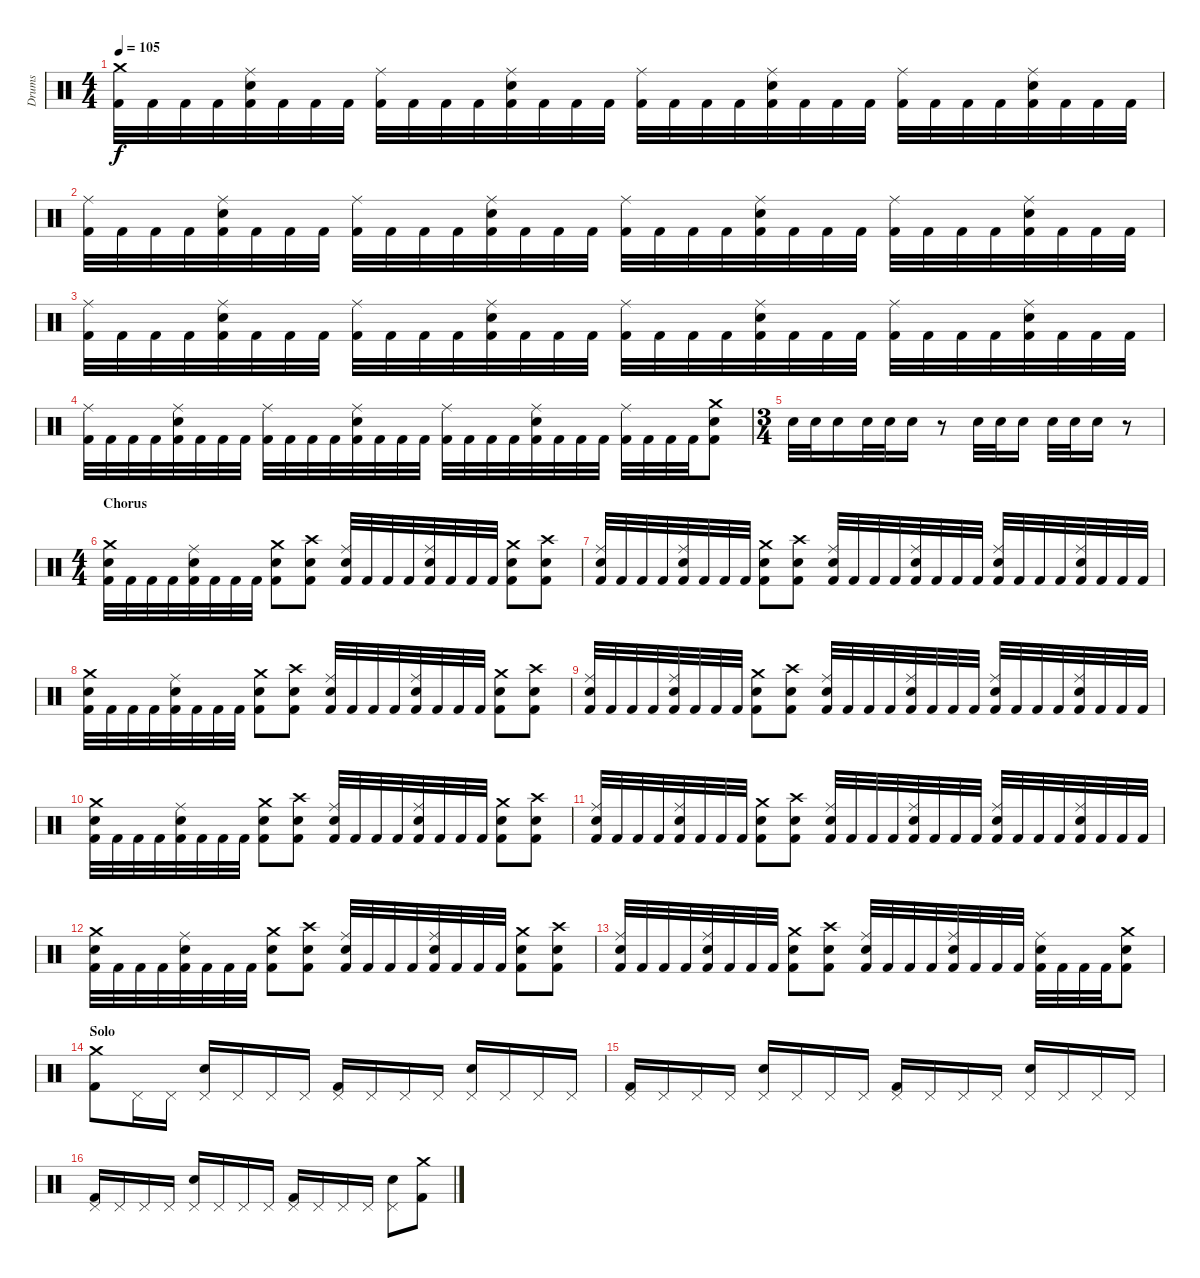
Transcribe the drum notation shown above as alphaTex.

\track ("Drums" "Drums") {instrument percussion}
\staff {score}
\articulation defaults
\ts (4 4)
\section ("" "")
\tempo 105
\clef neutral
\ks c
("Crash medium (hit)" "Kick (hit) 2").32{dy f} "Kick (hit) 2".32 "Kick (hit) 2".32 "Kick (hit) 2".32 ("Ride (middle)" "Electric Snare (hit)" "Kick (hit) 2").32 "Kick (hit) 2".32 "Kick (hit) 2".32 "Kick (hit) 2".32 ("Ride (middle)" "Kick (hit) 2").32 "Kick (hit) 2".32 "Kick (hit) 2".32 "Kick (hit) 2".32 ("Ride (middle)" "Electric Snare (hit)" "Kick (hit) 2").32 "Kick (hit) 2".32 "Kick (hit) 2".32 "Kick (hit) 2".32 ("Ride (middle)" "Kick (hit) 2").32 "Kick (hit) 2".32 "Kick (hit) 2".32 "Kick (hit) 2".32 ("Ride (middle)" "Electric Snare (hit)" "Kick (hit) 2").32 "Kick (hit) 2".32 "Kick (hit) 2".32 "Kick (hit) 2".32 ("Ride (middle)" "Kick (hit) 2").32 "Kick (hit) 2".32 "Kick (hit) 2".32 "Kick (hit) 2".32 ("Ride (middle)" "Electric Snare (hit)" "Kick (hit) 2").32 "Kick (hit) 2".32 "Kick (hit) 2".32 "Kick (hit) 2".32 |
("Ride (middle)" "Kick (hit) 2").32 "Kick (hit) 2".32 "Kick (hit) 2".32 "Kick (hit) 2".32 ("Ride (middle)" "Electric Snare (hit)" "Kick (hit) 2").32 "Kick (hit) 2".32 "Kick (hit) 2".32 "Kick (hit) 2".32 ("Ride (middle)" "Kick (hit) 2").32 "Kick (hit) 2".32 "Kick (hit) 2".32 "Kick (hit) 2".32 ("Ride (middle)" "Electric Snare (hit)" "Kick (hit) 2").32 "Kick (hit) 2".32 "Kick (hit) 2".32 "Kick (hit) 2".32 ("Ride (middle)" "Kick (hit) 2").32 "Kick (hit) 2".32 "Kick (hit) 2".32 "Kick (hit) 2".32 ("Ride (middle)" "Electric Snare (hit)" "Kick (hit) 2").32 "Kick (hit) 2".32 "Kick (hit) 2".32 "Kick (hit) 2".32 ("Ride (middle)" "Kick (hit) 2").32 "Kick (hit) 2".32 "Kick (hit) 2".32 "Kick (hit) 2".32 ("Ride (middle)" "Electric Snare (hit)" "Kick (hit) 2").32 "Kick (hit) 2".32 "Kick (hit) 2".32 "Kick (hit) 2".32 |
("Ride (middle)" "Kick (hit) 2").32 "Kick (hit) 2".32 "Kick (hit) 2".32 "Kick (hit) 2".32 ("Ride (middle)" "Electric Snare (hit)" "Kick (hit) 2").32 "Kick (hit) 2".32 "Kick (hit) 2".32 "Kick (hit) 2".32 ("Ride (middle)" "Kick (hit) 2").32 "Kick (hit) 2".32 "Kick (hit) 2".32 "Kick (hit) 2".32 ("Ride (middle)" "Electric Snare (hit)" "Kick (hit) 2").32 "Kick (hit) 2".32 "Kick (hit) 2".32 "Kick (hit) 2".32 ("Ride (middle)" "Kick (hit) 2").32 "Kick (hit) 2".32 "Kick (hit) 2".32 "Kick (hit) 2".32 ("Ride (middle)" "Electric Snare (hit)" "Kick (hit) 2").32 "Kick (hit) 2".32 "Kick (hit) 2".32 "Kick (hit) 2".32 ("Ride (middle)" "Kick (hit) 2").32 "Kick (hit) 2".32 "Kick (hit) 2".32 "Kick (hit) 2".32 ("Ride (middle)" "Electric Snare (hit)" "Kick (hit) 2").32 "Kick (hit) 2".32 "Kick (hit) 2".32 "Kick (hit) 2".32 |
("Ride (middle)" "Kick (hit) 2").32 "Kick (hit) 2".32 "Kick (hit) 2".32 "Kick (hit) 2".32 ("Ride (middle)" "Electric Snare (hit)" "Kick (hit) 2").32 "Kick (hit) 2".32 "Kick (hit) 2".32 "Kick (hit) 2".32 ("Ride (middle)" "Kick (hit) 2").32 "Kick (hit) 2".32 "Kick (hit) 2".32 "Kick (hit) 2".32 ("Ride (middle)" "Electric Snare (hit)" "Kick (hit) 2").32 "Kick (hit) 2".32 "Kick (hit) 2".32 "Kick (hit) 2".32 ("Ride (middle)" "Kick (hit) 2").32 "Kick (hit) 2".32 "Kick (hit) 2".32 "Kick (hit) 2".32 ("Ride (middle)" "Electric Snare (hit)" "Kick (hit) 2").32 "Kick (hit) 2".32 "Kick (hit) 2".32 "Kick (hit) 2".32 ("Ride (middle)" "Kick (hit) 2").32 "Kick (hit) 2".32 "Kick (hit) 2".32 "Kick (hit) 2".32 ("Crash medium (hit)" "Electric Snare (hit)" "Kick (hit) 2").8 |
\ts (3 4)
"Electric Snare (hit)".32 "Electric Snare (hit)".32 "Electric Snare (hit)".16 "Electric Snare (hit)".32 "Electric Snare (hit)".32 "Electric Snare (hit)".16 r.8 "Electric Snare (hit)".32 "Electric Snare (hit)".32 "Electric Snare (hit)".16 "Electric Snare (hit)".32 "Electric Snare (hit)".32 "Electric Snare (hit)".16 r.8 |
\ts (4 4)
\section ("" "Chorus")
("Crash medium (hit)" "Electric Snare (hit)" "Kick (hit) 2").32 "Kick (hit) 2".32 "Kick (hit) 2".32 "Kick (hit) 2".32 ("Ride (middle)" "Electric Snare (hit)" "Kick (hit) 2").32 "Kick (hit) 2".32 "Kick (hit) 2".32 "Kick (hit) 2".32 ("Crash medium (hit)" "Electric Snare (hit)" "Kick (hit) 2").8 ("Crash high (hit)" "Electric Snare (hit)" "Kick (hit) 2").8 ("Ride (middle)" "Electric Snare (hit)" "Kick (hit) 2").32 "Kick (hit) 2".32 "Kick (hit) 2".32 "Kick (hit) 2".32 ("Ride (middle)" "Electric Snare (hit)" "Kick (hit) 2").32 "Kick (hit) 2".32 "Kick (hit) 2".32 "Kick (hit) 2".32 ("Crash medium (hit)" "Electric Snare (hit)" "Kick (hit) 2").8 ("Crash high (hit)" "Electric Snare (hit)" "Kick (hit) 2").8 |
("Ride (middle)" "Electric Snare (hit)" "Kick (hit) 2").32 "Kick (hit) 2".32 "Kick (hit) 2".32 "Kick (hit) 2".32 ("Ride (middle)" "Electric Snare (hit)" "Kick (hit) 2").32 "Kick (hit) 2".32 "Kick (hit) 2".32 "Kick (hit) 2".32 ("Crash medium (hit)" "Electric Snare (hit)" "Kick (hit) 2").8 ("Crash high (hit)" "Electric Snare (hit)" "Kick (hit) 2").8 ("Ride (middle)" "Electric Snare (hit)" "Kick (hit) 2").32 "Kick (hit) 2".32 "Kick (hit) 2".32 "Kick (hit) 2".32 ("Ride (middle)" "Electric Snare (hit)" "Kick (hit) 2").32 "Kick (hit) 2".32 "Kick (hit) 2".32 "Kick (hit) 2".32 ("Ride (middle)" "Electric Snare (hit)" "Kick (hit) 2").32 "Kick (hit) 2".32 "Kick (hit) 2".32 "Kick (hit) 2".32 ("Ride (middle)" "Electric Snare (hit)" "Kick (hit) 2").32 "Kick (hit) 2".32 "Kick (hit) 2".32 "Kick (hit) 2".32 |
("Crash medium (hit)" "Electric Snare (hit)" "Kick (hit) 2").32 "Kick (hit) 2".32 "Kick (hit) 2".32 "Kick (hit) 2".32 ("Ride (middle)" "Electric Snare (hit)" "Kick (hit) 2").32 "Kick (hit) 2".32 "Kick (hit) 2".32 "Kick (hit) 2".32 ("Crash medium (hit)" "Electric Snare (hit)" "Kick (hit) 2").8 ("Crash high (hit)" "Electric Snare (hit)" "Kick (hit) 2").8 ("Ride (middle)" "Electric Snare (hit)" "Kick (hit) 2").32 "Kick (hit) 2".32 "Kick (hit) 2".32 "Kick (hit) 2".32 ("Ride (middle)" "Electric Snare (hit)" "Kick (hit) 2").32 "Kick (hit) 2".32 "Kick (hit) 2".32 "Kick (hit) 2".32 ("Crash medium (hit)" "Electric Snare (hit)" "Kick (hit) 2").8 ("Crash high (hit)" "Electric Snare (hit)" "Kick (hit) 2").8 |
("Ride (middle)" "Electric Snare (hit)" "Kick (hit) 2").32 "Kick (hit) 2".32 "Kick (hit) 2".32 "Kick (hit) 2".32 ("Ride (middle)" "Electric Snare (hit)" "Kick (hit) 2").32 "Kick (hit) 2".32 "Kick (hit) 2".32 "Kick (hit) 2".32 ("Crash medium (hit)" "Electric Snare (hit)" "Kick (hit) 2").8 ("Crash high (hit)" "Electric Snare (hit)" "Kick (hit) 2").8 ("Ride (middle)" "Electric Snare (hit)" "Kick (hit) 2").32 "Kick (hit) 2".32 "Kick (hit) 2".32 "Kick (hit) 2".32 ("Ride (middle)" "Electric Snare (hit)" "Kick (hit) 2").32 "Kick (hit) 2".32 "Kick (hit) 2".32 "Kick (hit) 2".32 ("Ride (middle)" "Electric Snare (hit)" "Kick (hit) 2").32 "Kick (hit) 2".32 "Kick (hit) 2".32 "Kick (hit) 2".32 ("Ride (middle)" "Electric Snare (hit)" "Kick (hit) 2").32 "Kick (hit) 2".32 "Kick (hit) 2".32 "Kick (hit) 2".32 |
("Crash medium (hit)" "Electric Snare (hit)" "Kick (hit) 2").32 "Kick (hit) 2".32 "Kick (hit) 2".32 "Kick (hit) 2".32 ("Ride (middle)" "Electric Snare (hit)" "Kick (hit) 2").32 "Kick (hit) 2".32 "Kick (hit) 2".32 "Kick (hit) 2".32 ("Crash medium (hit)" "Electric Snare (hit)" "Kick (hit) 2").8 ("Crash high (hit)" "Electric Snare (hit)" "Kick (hit) 2").8 ("Ride (middle)" "Electric Snare (hit)" "Kick (hit) 2").32 "Kick (hit) 2".32 "Kick (hit) 2".32 "Kick (hit) 2".32 ("Ride (middle)" "Electric Snare (hit)" "Kick (hit) 2").32 "Kick (hit) 2".32 "Kick (hit) 2".32 "Kick (hit) 2".32 ("Crash medium (hit)" "Electric Snare (hit)" "Kick (hit) 2").8 ("Crash high (hit)" "Electric Snare (hit)" "Kick (hit) 2").8 |
("Ride (middle)" "Electric Snare (hit)" "Kick (hit) 2").32 "Kick (hit) 2".32 "Kick (hit) 2".32 "Kick (hit) 2".32 ("Ride (middle)" "Electric Snare (hit)" "Kick (hit) 2").32 "Kick (hit) 2".32 "Kick (hit) 2".32 "Kick (hit) 2".32 ("Crash medium (hit)" "Electric Snare (hit)" "Kick (hit) 2").8 ("Crash high (hit)" "Electric Snare (hit)" "Kick (hit) 2").8 ("Ride (middle)" "Electric Snare (hit)" "Kick (hit) 2").32 "Kick (hit) 2".32 "Kick (hit) 2".32 "Kick (hit) 2".32 ("Ride (middle)" "Electric Snare (hit)" "Kick (hit) 2").32 "Kick (hit) 2".32 "Kick (hit) 2".32 "Kick (hit) 2".32 ("Ride (middle)" "Electric Snare (hit)" "Kick (hit) 2").32 "Kick (hit) 2".32 "Kick (hit) 2".32 "Kick (hit) 2".32 ("Ride (middle)" "Electric Snare (hit)" "Kick (hit) 2").32 "Kick (hit) 2".32 "Kick (hit) 2".32 "Kick (hit) 2".32 |
("Crash medium (hit)" "Electric Snare (hit)" "Kick (hit) 2").32 "Kick (hit) 2".32 "Kick (hit) 2".32 "Kick (hit) 2".32 ("Ride (middle)" "Electric Snare (hit)" "Kick (hit) 2").32 "Kick (hit) 2".32 "Kick (hit) 2".32 "Kick (hit) 2".32 ("Crash medium (hit)" "Electric Snare (hit)" "Kick (hit) 2").8 ("Crash high (hit)" "Electric Snare (hit)" "Kick (hit) 2").8 ("Ride (middle)" "Electric Snare (hit)" "Kick (hit) 2").32 "Kick (hit) 2".32 "Kick (hit) 2".32 "Kick (hit) 2".32 ("Ride (middle)" "Electric Snare (hit)" "Kick (hit) 2").32 "Kick (hit) 2".32 "Kick (hit) 2".32 "Kick (hit) 2".32 ("Crash medium (hit)" "Electric Snare (hit)" "Kick (hit) 2").8 ("Crash high (hit)" "Electric Snare (hit)" "Kick (hit) 2").8 |
("Ride (middle)" "Electric Snare (hit)" "Kick (hit) 2").32 "Kick (hit) 2".32 "Kick (hit) 2".32 "Kick (hit) 2".32 ("Ride (middle)" "Electric Snare (hit)" "Kick (hit) 2").32 "Kick (hit) 2".32 "Kick (hit) 2".32 "Kick (hit) 2".32 ("Crash medium (hit)" "Electric Snare (hit)" "Kick (hit) 2").8 ("Crash high (hit)" "Electric Snare (hit)" "Kick (hit) 2").8 ("Ride (middle)" "Electric Snare (hit)" "Kick (hit) 2").32 "Kick (hit) 2".32 "Kick (hit) 2".32 "Kick (hit) 2".32 ("Ride (middle)" "Electric Snare (hit)" "Kick (hit) 2").32 "Kick (hit) 2".32 "Kick (hit) 2".32 "Kick (hit) 2".32 ("Ride (middle)" "Electric Snare (hit)" "Kick (hit) 2").32 "Kick (hit) 2".32 "Kick (hit) 2".32 "Kick (hit) 2".32 ("Crash medium (hit)" "Electric Snare (hit)" "Kick (hit) 2").8 |
\section ("" "Solo")
("Crash medium (hit)" "Kick (hit) 2").8 "Pedal Hi-Hat (hit)".16 "Pedal Hi-Hat (hit)".16 ("Pedal Hi-Hat (hit)" "Electric Snare (hit)").16 "Pedal Hi-Hat (hit)".16 "Pedal Hi-Hat (hit)".16 "Pedal Hi-Hat (hit)".16 ("Pedal Hi-Hat (hit)" "Kick (hit) 2").16 "Pedal Hi-Hat (hit)".16 "Pedal Hi-Hat (hit)".16 "Pedal Hi-Hat (hit)".16 ("Pedal Hi-Hat (hit)" "Electric Snare (hit)").16 "Pedal Hi-Hat (hit)".16 "Pedal Hi-Hat (hit)".16 "Pedal Hi-Hat (hit)".16 |
("Pedal Hi-Hat (hit)" "Kick (hit) 2").16 "Pedal Hi-Hat (hit)".16 "Pedal Hi-Hat (hit)".16 "Pedal Hi-Hat (hit)".16 ("Pedal Hi-Hat (hit)" "Electric Snare (hit)").16 "Pedal Hi-Hat (hit)".16 "Pedal Hi-Hat (hit)".16 "Pedal Hi-Hat (hit)".16 ("Pedal Hi-Hat (hit)" "Kick (hit) 2").16 "Pedal Hi-Hat (hit)".16 "Pedal Hi-Hat (hit)".16 "Pedal Hi-Hat (hit)".16 ("Pedal Hi-Hat (hit)" "Electric Snare (hit)").16 "Pedal Hi-Hat (hit)".16 "Pedal Hi-Hat (hit)".16 "Pedal Hi-Hat (hit)".16 |
("Pedal Hi-Hat (hit)" "Kick (hit) 2").16 "Pedal Hi-Hat (hit)".16 "Pedal Hi-Hat (hit)".16 "Pedal Hi-Hat (hit)".16 ("Pedal Hi-Hat (hit)" "Electric Snare (hit)").16 "Pedal Hi-Hat (hit)".16 "Pedal Hi-Hat (hit)".16 "Pedal Hi-Hat (hit)".16 ("Pedal Hi-Hat (hit)" "Kick (hit) 2").16 "Pedal Hi-Hat (hit)".16 "Pedal Hi-Hat (hit)".16 "Pedal Hi-Hat (hit)".16 ("Pedal Hi-Hat (hit)" "Electric Snare (hit)").8 ("Crash medium (hit)" "Kick (hit) 2").8
